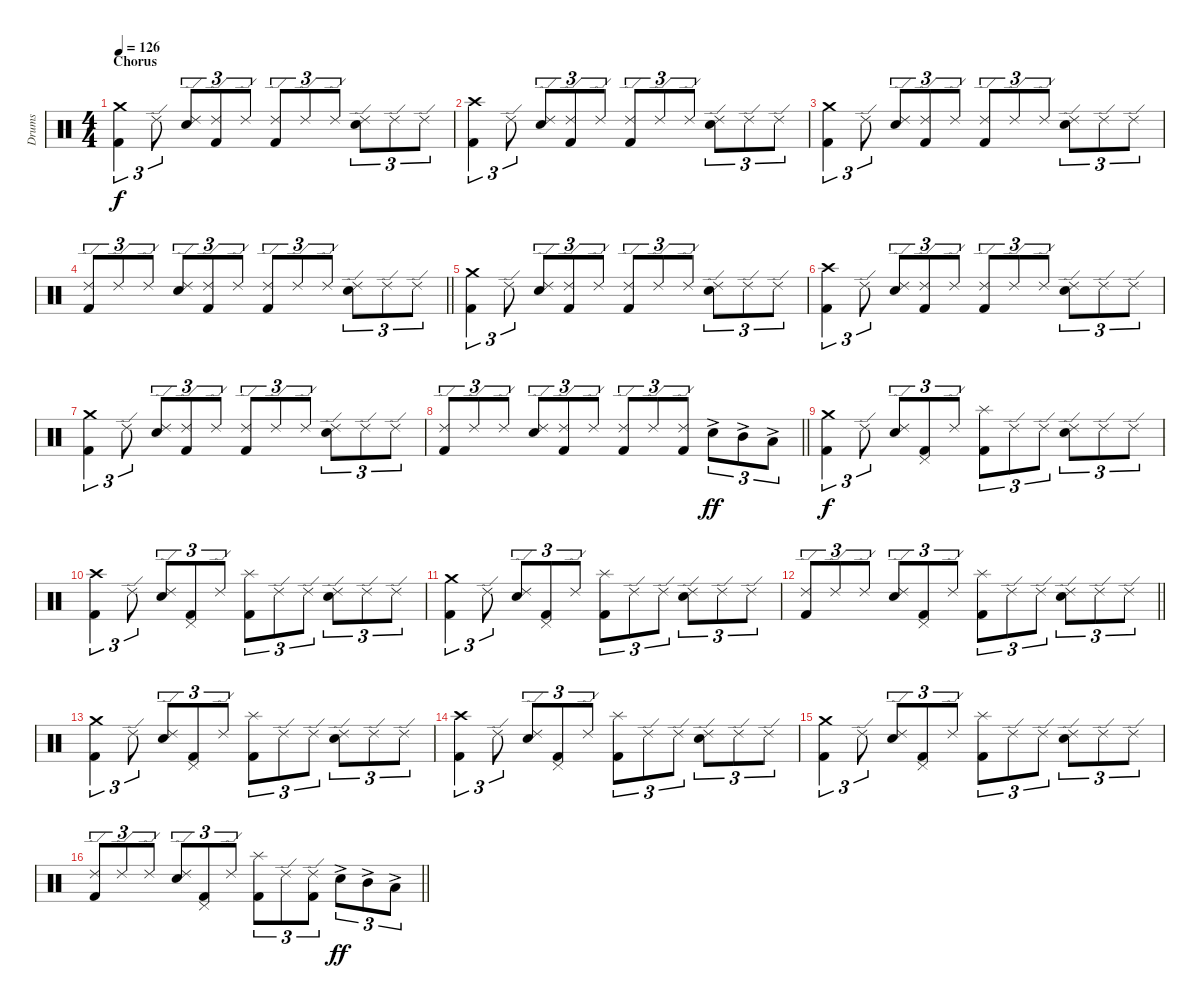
\track ("Drums" "Drums") {instrument percussion}
\staff {score}
\articulation defaults
\ts (4 4)
\section ("" "Chorus")
\tempo 126
\clef neutral
\ks c
("Kick (hit) 2" "Crash medium (hit)").4{tu (3 2) dy f} "Ride (edge) 2".8{tu (3 2)} ("Snare (hit) 2" "Ride (edge) 2").8{tu (3 2)} ("Kick (hit) 2" "Ride (edge) 2").8{tu (3 2)} "Ride (edge) 2".8{tu (3 2)} ("Kick (hit) 2" "Ride (edge) 2").8{tu (3 2)} "Ride (edge) 2".8{tu (3 2)} "Ride (edge) 2".8{tu (3 2)} ("Snare (hit) 2" "Ride (edge) 2").8{tu (3 2)} "Ride (edge) 2".8{tu (3 2)} "Ride (edge) 2".8{tu (3 2)} |
("Kick (hit) 2" "Crash high (hit)").4{tu (3 2)} "Ride (edge) 2".8{tu (3 2)} ("Snare (hit) 2" "Ride (edge) 2").8{tu (3 2)} ("Kick (hit) 2" "Ride (edge) 2").8{tu (3 2)} "Ride (edge) 2".8{tu (3 2)} ("Kick (hit) 2" "Ride (edge) 2").8{tu (3 2)} "Ride (edge) 2".8{tu (3 2)} "Ride (edge) 2".8{tu (3 2)} ("Snare (hit) 2" "Ride (edge) 2").8{tu (3 2)} "Ride (edge) 2".8{tu (3 2)} "Ride (edge) 2".8{tu (3 2)} |
("Kick (hit) 2" "Crash medium (hit)").4{tu (3 2)} "Ride (edge) 2".8{tu (3 2)} ("Snare (hit) 2" "Ride (edge) 2").8{tu (3 2)} ("Kick (hit) 2" "Ride (edge) 2").8{tu (3 2)} "Ride (edge) 2".8{tu (3 2)} ("Kick (hit) 2" "Ride (edge) 2").8{tu (3 2)} "Ride (edge) 2".8{tu (3 2)} "Ride (edge) 2".8{tu (3 2)} ("Snare (hit) 2" "Ride (edge) 2").8{tu (3 2)} "Ride (edge) 2".8{tu (3 2)} "Ride (edge) 2".8{tu (3 2)} |
\barLineRight lightlight
("Kick (hit) 2" "Ride (edge) 2").8{tu (3 2)} "Ride (edge) 2".8{tu (3 2)} "Ride (edge) 2".8{tu (3 2)} ("Snare (hit) 2" "Ride (edge) 2").8{tu (3 2)} ("Kick (hit) 2" "Ride (edge) 2").8{tu (3 2)} "Ride (edge) 2".8{tu (3 2)} ("Kick (hit) 2" "Ride (edge) 2").8{tu (3 2)} "Ride (edge) 2".8{tu (3 2)} "Ride (edge) 2".8{tu (3 2)} ("Snare (hit) 2" "Ride (edge) 2").8{tu (3 2)} "Ride (edge) 2".8{tu (3 2)} "Ride (edge) 2".8{tu (3 2)} |
\section ("" "")
("Kick (hit) 2" "Crash medium (hit)").4{tu (3 2)} "Ride (edge) 2".8{tu (3 2)} ("Snare (hit) 2" "Ride (edge) 2").8{tu (3 2)} ("Kick (hit) 2" "Ride (edge) 2").8{tu (3 2)} "Ride (edge) 2".8{tu (3 2)} ("Kick (hit) 2" "Ride (edge) 2").8{tu (3 2)} "Ride (edge) 2".8{tu (3 2)} "Ride (edge) 2".8{tu (3 2)} ("Snare (hit) 2" "Ride (edge) 2").8{tu (3 2)} "Ride (edge) 2".8{tu (3 2)} "Ride (edge) 2".8{tu (3 2)} |
("Kick (hit) 2" "Crash high (hit)").4{tu (3 2)} "Ride (edge) 2".8{tu (3 2)} ("Snare (hit) 2" "Ride (edge) 2").8{tu (3 2)} ("Kick (hit) 2" "Ride (edge) 2").8{tu (3 2)} "Ride (edge) 2".8{tu (3 2)} ("Kick (hit) 2" "Ride (edge) 2").8{tu (3 2)} "Ride (edge) 2".8{tu (3 2)} "Ride (edge) 2".8{tu (3 2)} ("Snare (hit) 2" "Ride (edge) 2").8{tu (3 2)} "Ride (edge) 2".8{tu (3 2)} "Ride (edge) 2".8{tu (3 2)} |
("Kick (hit) 2" "Crash medium (hit)").4{tu (3 2)} "Ride (edge) 2".8{tu (3 2)} ("Snare (hit) 2" "Ride (edge) 2").8{tu (3 2)} ("Kick (hit) 2" "Ride (edge) 2").8{tu (3 2)} "Ride (edge) 2".8{tu (3 2)} ("Kick (hit) 2" "Ride (edge) 2").8{tu (3 2)} "Ride (edge) 2".8{tu (3 2)} "Ride (edge) 2".8{tu (3 2)} ("Snare (hit) 2" "Ride (edge) 2").8{tu (3 2)} "Ride (edge) 2".8{tu (3 2)} "Ride (edge) 2".8{tu (3 2)} |
\barLineRight lightlight
("Kick (hit) 2" "Ride (edge) 2").8{tu (3 2)} "Ride (edge) 2".8{tu (3 2)} "Ride (edge) 2".8{tu (3 2)} ("Snare (hit) 2" "Ride (edge) 2").8{tu (3 2)} ("Kick (hit) 2" "Ride (edge) 2").8{tu (3 2)} "Ride (edge) 2".8{tu (3 2)} ("Kick (hit) 2" "Ride (edge) 2").8{tu (3 2)} "Ride (edge) 2".8{tu (3 2)} ("Kick (hit) 2" "Ride (edge) 2").8{tu (3 2)} "Snare (hit) 2"{ac}.8{tu (3 2) dy ff} "Mid Tom (hit)"{ac}.8{tu (3 2)} "Low Tom (hit)"{ac}.8{tu (3 2)} |
\section ("" "")
("Kick (hit) 2" "Crash medium (hit)").4{tu (3 2) dy f} "Ride (edge) 2".8{tu (3 2)} ("Snare (hit) 2" "Ride (edge) 2").8{tu (3 2)} ("Kick (hit) 2" "Pedal Hi-Hat (hit)").8{tu (3 2)} "Ride (edge) 2".8{tu (3 2)} ("Kick (hit) 2" "Splash (hit)").8{tu (3 2)} "Ride (edge) 2".8{tu (3 2)} "Ride (edge) 2".8{tu (3 2)} ("Snare (hit) 2" "Ride (edge) 2").8{tu (3 2)} "Ride (edge) 2".8{tu (3 2)} "Ride (edge) 2".8{tu (3 2)} |
("Kick (hit) 2" "Crash high (hit)").4{tu (3 2)} "Ride (edge) 2".8{tu (3 2)} ("Snare (hit) 2" "Ride (edge) 2").8{tu (3 2)} ("Kick (hit) 2" "Pedal Hi-Hat (hit)").8{tu (3 2)} "Ride (edge) 2".8{tu (3 2)} ("Kick (hit) 2" "Splash (hit)").8{tu (3 2)} "Ride (edge) 2".8{tu (3 2)} "Ride (edge) 2".8{tu (3 2)} ("Snare (hit) 2" "Ride (edge) 2").8{tu (3 2)} "Ride (edge) 2".8{tu (3 2)} "Ride (edge) 2".8{tu (3 2)} |
("Kick (hit) 2" "Crash medium (hit)").4{tu (3 2)} "Ride (edge) 2".8{tu (3 2)} ("Snare (hit) 2" "Ride (edge) 2").8{tu (3 2)} ("Kick (hit) 2" "Pedal Hi-Hat (hit)").8{tu (3 2)} "Ride (edge) 2".8{tu (3 2)} ("Kick (hit) 2" "Splash (hit)").8{tu (3 2)} "Ride (edge) 2".8{tu (3 2)} "Ride (edge) 2".8{tu (3 2)} ("Snare (hit) 2" "Ride (edge) 2").8{tu (3 2)} "Ride (edge) 2".8{tu (3 2)} "Ride (edge) 2".8{tu (3 2)} |
\barLineRight lightlight
("Kick (hit) 2" "Ride (edge) 2").8{tu (3 2)} "Ride (edge) 2".8{tu (3 2)} "Ride (edge) 2".8{tu (3 2)} ("Snare (hit) 2" "Ride (edge) 2").8{tu (3 2)} ("Kick (hit) 2" "Pedal Hi-Hat (hit)").8{tu (3 2)} "Ride (edge) 2".8{tu (3 2)} ("Kick (hit) 2" "Splash (hit)").8{tu (3 2)} "Ride (edge) 2".8{tu (3 2)} "Ride (edge) 2".8{tu (3 2)} ("Snare (hit) 2" "Ride (edge) 2").8{tu (3 2)} "Ride (edge) 2".8{tu (3 2)} "Ride (edge) 2".8{tu (3 2)} |
\section ("" "")
("Kick (hit) 2" "Crash medium (hit)").4{tu (3 2)} "Ride (edge) 2".8{tu (3 2)} ("Snare (hit) 2" "Ride (edge) 2").8{tu (3 2)} ("Kick (hit) 2" "Pedal Hi-Hat (hit)").8{tu (3 2)} "Ride (edge) 2".8{tu (3 2)} ("Kick (hit) 2" "Splash (hit)").8{tu (3 2)} "Ride (edge) 2".8{tu (3 2)} "Ride (edge) 2".8{tu (3 2)} ("Snare (hit) 2" "Ride (edge) 2").8{tu (3 2)} "Ride (edge) 2".8{tu (3 2)} "Ride (edge) 2".8{tu (3 2)} |
("Kick (hit) 2" "Crash high (hit)").4{tu (3 2)} "Ride (edge) 2".8{tu (3 2)} ("Snare (hit) 2" "Ride (edge) 2").8{tu (3 2)} ("Kick (hit) 2" "Pedal Hi-Hat (hit)").8{tu (3 2)} "Ride (edge) 2".8{tu (3 2)} ("Kick (hit) 2" "Splash (hit)").8{tu (3 2)} "Ride (edge) 2".8{tu (3 2)} "Ride (edge) 2".8{tu (3 2)} ("Snare (hit) 2" "Ride (edge) 2").8{tu (3 2)} "Ride (edge) 2".8{tu (3 2)} "Ride (edge) 2".8{tu (3 2)} |
("Kick (hit) 2" "Crash medium (hit)").4{tu (3 2)} "Ride (edge) 2".8{tu (3 2)} ("Snare (hit) 2" "Ride (edge) 2").8{tu (3 2)} ("Kick (hit) 2" "Pedal Hi-Hat (hit)").8{tu (3 2)} "Ride (edge) 2".8{tu (3 2)} ("Kick (hit) 2" "Splash (hit)").8{tu (3 2)} "Ride (edge) 2".8{tu (3 2)} "Ride (edge) 2".8{tu (3 2)} ("Snare (hit) 2" "Ride (edge) 2").8{tu (3 2)} "Ride (edge) 2".8{tu (3 2)} "Ride (edge) 2".8{tu (3 2)} |
\barLineRight lightlight
("Kick (hit) 2" "Ride (edge) 2").8{tu (3 2)} "Ride (edge) 2".8{tu (3 2)} "Ride (edge) 2".8{tu (3 2)} ("Snare (hit) 2" "Ride (edge) 2").8{tu (3 2)} ("Kick (hit) 2" "Pedal Hi-Hat (hit)").8{tu (3 2)} "Ride (edge) 2".8{tu (3 2)} ("Kick (hit) 2" "Splash (hit)").8{tu (3 2)} "Ride (edge) 2".8{tu (3 2)} ("Kick (hit) 2" "Ride (edge) 2").8{tu (3 2)} "Snare (hit) 2"{ac}.8{tu (3 2) dy ff} "Mid Tom (hit)"{ac}.8{tu (3 2)} "Low Tom (hit)"{ac}.8{tu (3 2)}
